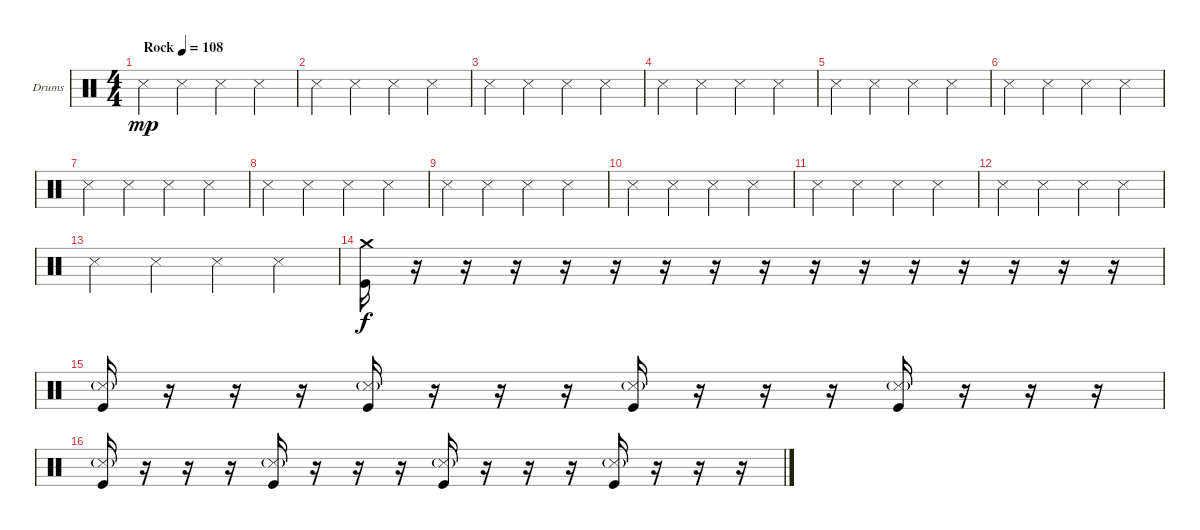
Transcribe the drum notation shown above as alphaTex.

\bracketExtendMode groupsimilarinstruments
\firstSystemTrackNameOrientation horizontal
\otherSystemsTrackNameOrientation horizontal
\track ("Drumkit" "Drums") {instrument percussion}
\staff {score}
\articulation defaults
\ts (4 4)
\beaming (8 2 2 2 2)
\tempo (108 "Rock")
\clef neutral
\ks c "Snare (side stick) 3".4{dy mp} "Snare (side stick) 3".4 "Snare (side stick) 3".4 "Snare (side stick) 3".4
|
"Snare (side stick) 3".4 "Snare (side stick) 3".4 "Snare (side stick) 3".4 "Snare (side stick) 3".4 |
"Snare (side stick) 3".4 "Snare (side stick) 3".4 "Snare (side stick) 3".4 "Snare (side stick) 3".4 |
"Snare (side stick) 3".4 "Snare (side stick) 3".4 "Snare (side stick) 3".4 "Snare (side stick) 3".4 |
"Snare (side stick) 3".4 "Snare (side stick) 3".4 "Snare (side stick) 3".4 "Snare (side stick) 3".4 |
"Snare (side stick) 3".4 "Snare (side stick) 3".4 "Snare (side stick) 3".4 "Snare (side stick) 3".4 |
"Snare (side stick) 3".4 "Snare (side stick) 3".4 "Snare (side stick) 3".4 "Snare (side stick) 3".4 |
"Snare (side stick) 3".4 "Snare (side stick) 3".4 "Snare (side stick) 3".4 "Snare (side stick) 3".4 |
"Snare (side stick) 3".4 "Snare (side stick) 3".4 "Snare (side stick) 3".4 "Snare (side stick) 3".4 |
"Snare (side stick) 3".4 "Snare (side stick) 3".4 "Snare (side stick) 3".4 "Snare (side stick) 3".4 |
"Snare (side stick) 3".4 "Snare (side stick) 3".4 "Snare (side stick) 3".4 "Snare (side stick) 3".4 |
"Snare (side stick) 3".4 "Snare (side stick) 3".4 "Snare (side stick) 3".4 "Snare (side stick) 3".4 |
"Snare (side stick) 3".4 "Snare (side stick) 3".4 "Snare (side stick) 3".4 "Snare (side stick) 3".4 |
("Kick (hit)" "Crash medium (hit)").16{dy f} r.16 r.16 r.16 r.16 r.16 r.16 r.16 r.16 r.16 r.16 r.16 r.16 r.16 r.16 r.16 |
("Kick (hit)" "Snare (side stick) 3"{g}).16 r.16 r.16 r.16 ("Kick (hit)" "Snare (side stick) 3"{g}).16 r.16 r.16 r.16 ("Kick (hit)" "Snare (side stick) 3"{g}).16 r.16 r.16 r.16 ("Kick (hit)" "Snare (side stick) 3"{g}).16 r.16 r.16 r.16 |
("Kick (hit)" "Snare (side stick) 3"{g}).16 r.16 r.16 r.16 ("Kick (hit)" "Snare (side stick) 3"{g}).16 r.16 r.16 r.16 ("Kick (hit)" "Snare (side stick) 3"{g}).16 r.16 r.16 r.16 ("Kick (hit)" "Snare (side stick) 3"{g}).16 r.16 r.16 r.16
